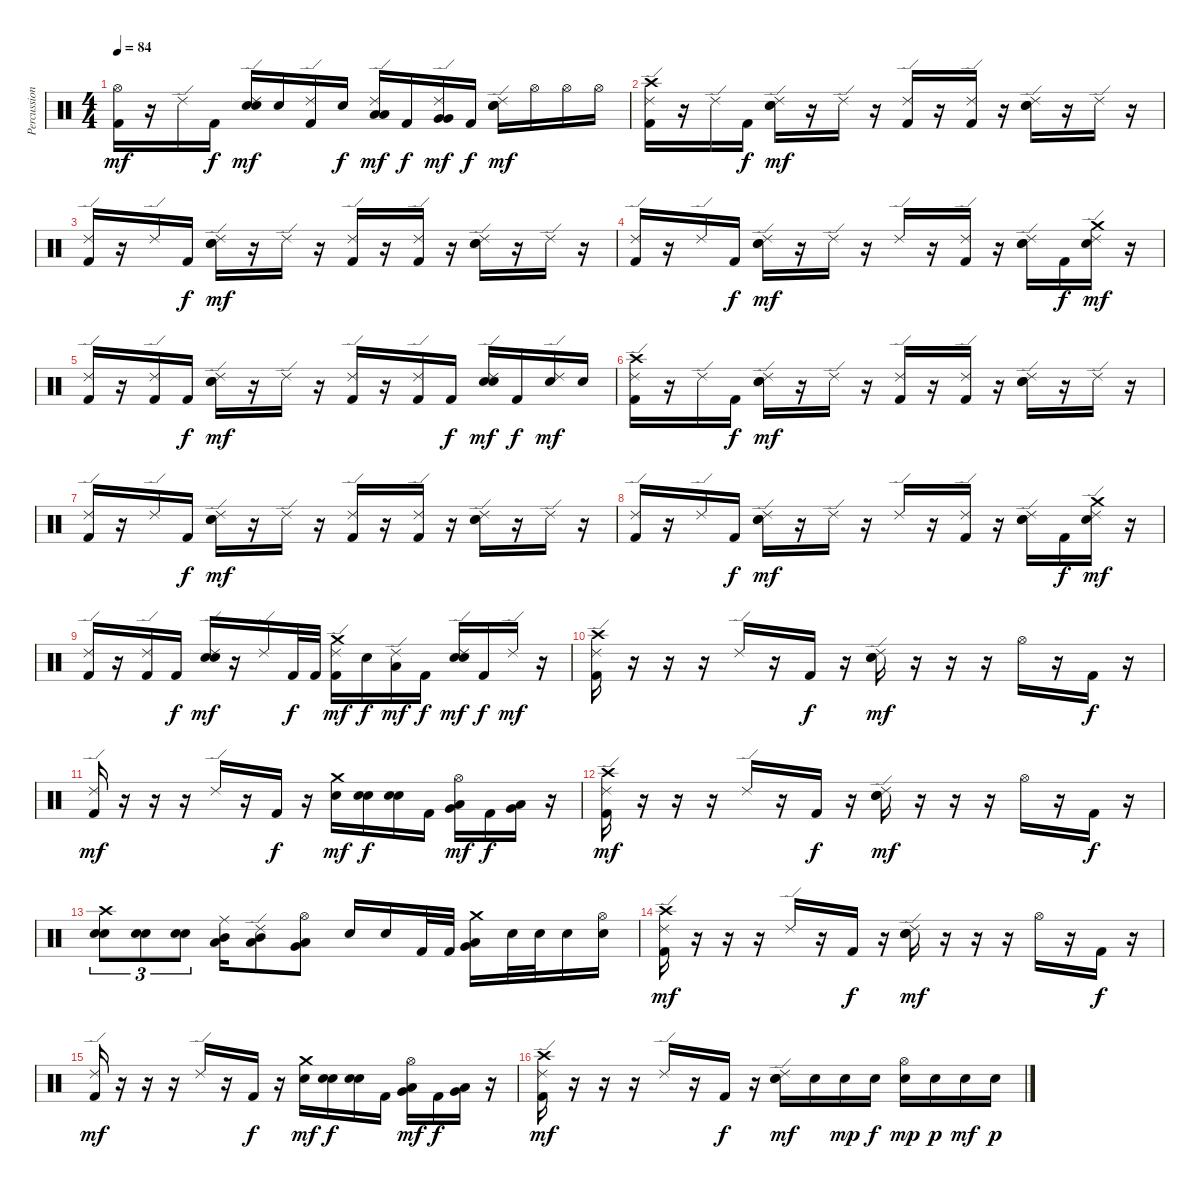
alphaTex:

\track ("Percussion" "Percussion") {instrument percussion}
\staff {score}
\articulation defaults
\ts (4 4)
\tempo 84
\clef neutral
\ks c
("Hi-Hat (open)" "Kick (hit) 2").16{dy mf} r.16 "Ride (edge) 2".16 "Kick (hit) 2".16{dy f} ("Ride (edge) 2" "Snare (hit) 2" "Electric Snare (hit)").16{dy mf} "Electric Snare (hit)".16 ("Ride (edge) 2" "Kick (hit) 2").16 "Electric Snare (hit)".16{dy f} ("Ride (edge) 2" "Low Tom (hit)" "Low Tom (hit)").16{dy mf} "Kick (hit) 2".16{dy f} ("Ride (edge) 2" "Very Low Tom (hit)" "Very Low Tom (hit)").16{dy mf} "Kick (hit) 2".16{dy f} ("Ride (edge) 2" "Snare (hit) 2" "Electric Snare (hit)").16{dy mf} "Hi-Hat (open)".16 "Hi-Hat (open)".16 "Hi-Hat (open)".16 |
("Ride (edge) 2" "Crash high (hit)" "Kick (hit) 2").16 r.16 "Ride (edge) 2".16 "Kick (hit) 2".16{dy f} ("Ride (edge) 2" "Snare (hit) 2" "Electric Snare (hit)").16{dy mf} r.16 "Ride (edge) 2".16 r.16 ("Ride (edge) 2" "Kick (hit) 2").16 r.16 ("Ride (edge) 2" "Kick (hit) 2").16 r.16 ("Ride (edge) 2" "Snare (hit) 2" "Electric Snare (hit)").16 r.16 "Ride (edge) 2".16 r.16 |
("Ride (edge) 2" "Kick (hit) 2").16 r.16 "Ride (edge) 2".16 "Kick (hit) 2".16{dy f} ("Ride (edge) 2" "Snare (hit) 2" "Electric Snare (hit)").16{dy mf} r.16 "Ride (edge) 2".16 r.16 ("Ride (edge) 2" "Kick (hit) 2").16 r.16 ("Ride (edge) 2" "Kick (hit) 2").16 r.16 ("Ride (edge) 2" "Snare (hit) 2" "Electric Snare (hit)").16 r.16 "Ride (edge) 2".16 r.16 |
("Ride (edge) 2" "Kick (hit) 2").16 r.16 "Ride (edge) 2".16 "Kick (hit) 2".16{dy f} ("Ride (edge) 2" "Snare (hit) 2" "Electric Snare (hit)").16{dy mf} r.16 "Ride (edge) 2".16 r.16 "Ride (edge) 2".16 r.16 ("Ride (edge) 2" "Kick (hit) 2").16 r.16 ("Ride (edge) 2" "Snare (hit) 2" "Electric Snare (hit)").16 "Kick (hit) 2".16{dy f} ("Ride (edge) 2" "Crash medium (hit)" "Electric Snare (hit)").16{dy mf} r.16 |
("Ride (edge) 2" "Kick (hit) 2").16 r.16 ("Ride (edge) 2" "Kick (hit) 2").16 "Kick (hit) 2".16{dy f} ("Ride (edge) 2" "Snare (hit) 2" "Electric Snare (hit)").16{dy mf} r.16 "Ride (edge) 2".16 r.16 ("Ride (edge) 2" "Kick (hit) 2").16 r.16 ("Ride (edge) 2" "Kick (hit) 2").16 "Kick (hit) 2".16{dy f} ("Ride (edge) 2" "Snare (hit) 2" "Electric Snare (hit)").16{dy mf} "Kick (hit) 2".16{dy f} ("Ride (edge) 2" "Electric Snare (hit)").16{dy mf} "Electric Snare (hit)".16 |
("Ride (edge) 2" "Crash high (hit)" "Kick (hit) 2").16 r.16 "Ride (edge) 2".16 "Kick (hit) 2".16{dy f} ("Ride (edge) 2" "Snare (hit) 2" "Electric Snare (hit)").16{dy mf} r.16 "Ride (edge) 2".16 r.16 ("Ride (edge) 2" "Kick (hit) 2").16 r.16 ("Ride (edge) 2" "Kick (hit) 2").16 r.16 ("Ride (edge) 2" "Snare (hit) 2" "Electric Snare (hit)").16 r.16 "Ride (edge) 2".16 r.16 |
("Ride (edge) 2" "Kick (hit) 2").16 r.16 "Ride (edge) 2".16 "Kick (hit) 2".16{dy f} ("Ride (edge) 2" "Snare (hit) 2" "Electric Snare (hit)").16{dy mf} r.16 "Ride (edge) 2".16 r.16 ("Ride (edge) 2" "Kick (hit) 2").16 r.16 ("Ride (edge) 2" "Kick (hit) 2").16 r.16 ("Ride (edge) 2" "Snare (hit) 2" "Electric Snare (hit)").16 r.16 "Ride (edge) 2".16 r.16 |
("Ride (edge) 2" "Kick (hit) 2").16 r.16 "Ride (edge) 2".16 "Kick (hit) 2".16{dy f} ("Ride (edge) 2" "Snare (hit) 2" "Electric Snare (hit)").16{dy mf} r.16 "Ride (edge) 2".16 r.16 "Ride (edge) 2".16 r.16 ("Ride (edge) 2" "Kick (hit) 2").16 r.16 ("Ride (edge) 2" "Snare (hit) 2" "Electric Snare (hit)").16 "Kick (hit) 2".16{dy f} ("Ride (edge) 2" "Crash medium (hit)" "Electric Snare (hit)").16{dy mf} r.16 |
("Ride (edge) 2" "Kick (hit) 2").16 r.16 ("Ride (edge) 2" "Kick (hit) 2").16 "Kick (hit) 2".16{dy f} ("Ride (edge) 2" "Snare (hit) 2" "Electric Snare (hit)").16{dy mf} r.16 "Ride (edge) 2".16 "Kick (hit) 2".32{dy f} "Kick (hit) 2".32 ("Ride (edge) 2" "Crash medium (hit)" "Kick (hit) 2").16{dy mf} "Electric Snare (hit)".16{dy f} ("Ride (edge) 2" "Low Tom (hit)").16{dy mf} "Kick (hit) 2".16{dy f} ("Ride (edge) 2" "Snare (hit) 2" "Electric Snare (hit)").16{dy mf} "Kick (hit) 2".16{dy f} "Ride (edge) 2".16{dy mf} r.16 |
("Ride (edge) 2" "Crash high (hit)" "Kick (hit) 2").16 r.16 r.16 r.16 "Ride (edge) 2".16 r.16 "Kick (hit) 2".16{dy f} r.16 ("Ride (edge) 2" "Snare (hit) 2" "Electric Snare (hit)").16{dy mf} r.16 r.16 r.16 "Hi-Hat (open)".16 r.16 "Kick (hit) 2".16{dy f} r.16 |
("Ride (edge) 2" "Kick (hit) 2").16{dy mf} r.16 r.16 r.16 "Ride (edge) 2".16 r.16 "Kick (hit) 2".16{dy f} r.16 ("Crash medium (hit)" "Electric Snare (hit)").16{dy mf} ("Snare (hit) 2" "Electric Snare (hit)").16{dy f} ("Snare (hit) 2" "Electric Snare (hit)").16 "Kick (hit) 2".16 ("Hi-Hat (open)" "Low Tom (hit)" "Very Low Tom (hit)").16{dy mf} "Kick (hit) 2".16{dy f} ("Very Low Tom (hit)" "Low Floor Tom (hit)").16 r.16 |
("Ride (edge) 2" "Crash high (hit)" "Kick (hit) 2").16{dy mf} r.16 r.16 r.16 "Ride (edge) 2".16 r.16 "Kick (hit) 2".16{dy f} r.16 ("Ride (edge) 2" "Snare (hit) 2" "Electric Snare (hit)").16{dy mf} r.16 r.16 r.16 "Hi-Hat (open)".16 r.16 "Kick (hit) 2".16{dy f} r.16 |
("Crash high (hit)" "Snare (hit) 2" "Electric Snare (hit)").8{tu (3 2)} ("Snare (hit) 2" "Electric Snare (hit)").8{tu (3 2)} ("Snare (hit) 2" "Electric Snare (hit)").8{tu (3 2)} ("Ride (middle)" "Mid Tom (hit)" "Low Tom (hit)").16 ("Ride (edge) 2" "Mid Tom (hit)" "Low Tom (hit)").8 ("Hi-Hat (open)" "Low Tom (hit)" "Very Low Tom (hit)").8 "Electric Snare (hit)".16 "Electric Snare (hit)".16 "Kick (hit) 2".32 "Kick (hit) 2".32 ("Crash medium (hit)" "Very Low Tom (hit)" "Low Tom (hit)").16 "Electric Snare (hit)".32 "Electric Snare (hit)".32 "Electric Snare (hit)".16 ("Hi-Hat (open)" "Electric Snare (hit)").16 |
("Ride (edge) 2" "Crash high (hit)" "Kick (hit) 2").16{dy mf} r.16 r.16 r.16 "Ride (edge) 2".16 r.16 "Kick (hit) 2".16{dy f} r.16 ("Ride (edge) 2" "Snare (hit) 2" "Electric Snare (hit)").16{dy mf} r.16 r.16 r.16 "Hi-Hat (open)".16 r.16 "Kick (hit) 2".16{dy f} r.16 |
("Ride (edge) 2" "Kick (hit) 2").16{dy mf} r.16 r.16 r.16 "Ride (edge) 2".16 r.16 "Kick (hit) 2".16{dy f} r.16 ("Crash medium (hit)" "Electric Snare (hit)").16{dy mf} ("Snare (hit) 2" "Electric Snare (hit)").16{dy f} ("Snare (hit) 2" "Electric Snare (hit)").16 "Kick (hit) 2".16 ("Hi-Hat (open)" "Low Tom (hit)" "Very Low Tom (hit)").16{dy mf} "Kick (hit) 2".16{dy f} ("Very Low Tom (hit)" "Low Floor Tom (hit)").16 r.16 |
("Ride (edge) 2" "Crash high (hit)" "Kick (hit) 2").16{dy mf} r.16 r.16 r.16 "Ride (edge) 2".16 r.16 "Kick (hit) 2".16{dy f} r.16 ("Ride (edge) 2" "Snare (hit) 2" "Electric Snare (hit)").16{dy mf} "Electric Snare (hit)".16 "Electric Snare (hit)".16{dy mp} "Electric Snare (hit)".16{dy f} ("Hi-Hat (open)" "Electric Snare (hit)").16{dy mp} "Electric Snare (hit)".16{dy p} "Electric Snare (hit)".16{dy mf} "Electric Snare (hit)".16{dy p}
